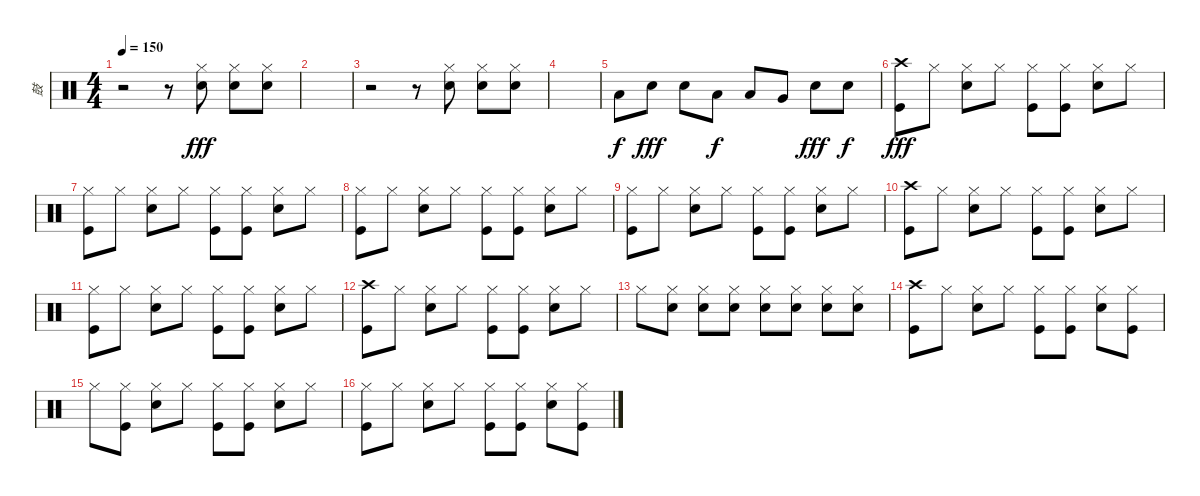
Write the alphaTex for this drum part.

\track ("鼓" "鼓") {instrument percussion}
\staff {score}
\articulation defaults
\ts (4 4)
\tempo 150
\clef neutral
\ks c
r.2{dy fff} r.8 ("Hi-Hat (closed)" "Electric Snare (hit)").8 ("Hi-Hat (closed)" "Electric Snare (hit)").8 ("Hi-Hat (closed)" "Electric Snare (hit)").8 |
|
r.2 r.8 ("Hi-Hat (closed)" "Electric Snare (hit)").8 ("Hi-Hat (closed)" "Electric Snare (hit)").8 ("Hi-Hat (closed)" "Electric Snare (hit)").8 |
|
"Low Tom (hit)".8{dy f} "Electric Snare (hit)".8{dy fff} "Electric Snare (hit)".8 "Low Tom (hit)".8{dy f} "Low Tom (hit)".8 "Very Low Tom (hit)".8 "Electric Snare (hit)".8{dy fff} "Electric Snare (hit)".8{dy f} |
("Crash high (hit)" "Kick (hit)").8{dy fff} "Hi-Hat (closed)".8 ("Hi-Hat (closed)" "Electric Snare (hit)").8 "Hi-Hat (closed)".8 ("Hi-Hat (closed)" "Kick (hit)").8 ("Hi-Hat (closed)" "Kick (hit)").8 ("Hi-Hat (closed)" "Electric Snare (hit)").8 "Hi-Hat (closed)".8 |
("Hi-Hat (closed)" "Kick (hit)").8 "Hi-Hat (closed)".8 ("Hi-Hat (closed)" "Electric Snare (hit)").8 "Hi-Hat (closed)".8 ("Hi-Hat (closed)" "Kick (hit)").8 ("Hi-Hat (closed)" "Kick (hit)").8 ("Hi-Hat (closed)" "Electric Snare (hit)").8 "Hi-Hat (closed)".8 |
("Hi-Hat (closed)" "Kick (hit)").8 "Hi-Hat (closed)".8 ("Hi-Hat (closed)" "Electric Snare (hit)").8 "Hi-Hat (closed)".8 ("Hi-Hat (closed)" "Kick (hit)").8 ("Hi-Hat (closed)" "Kick (hit)").8 ("Hi-Hat (closed)" "Electric Snare (hit)").8 "Hi-Hat (closed)".8 |
("Hi-Hat (closed)" "Kick (hit)").8 "Hi-Hat (closed)".8 ("Hi-Hat (closed)" "Electric Snare (hit)").8 "Hi-Hat (closed)".8 ("Hi-Hat (closed)" "Kick (hit)").8 ("Hi-Hat (closed)" "Kick (hit)").8 ("Hi-Hat (closed)" "Electric Snare (hit)").8 "Hi-Hat (closed)".8 |
("Crash high (hit)" "Kick (hit)").8 "Hi-Hat (closed)".8 ("Hi-Hat (closed)" "Electric Snare (hit)").8 "Hi-Hat (closed)".8 ("Hi-Hat (closed)" "Kick (hit)").8 ("Hi-Hat (closed)" "Kick (hit)").8 ("Hi-Hat (closed)" "Electric Snare (hit)").8 "Hi-Hat (closed)".8 |
("Hi-Hat (closed)" "Kick (hit)").8 "Hi-Hat (closed)".8 ("Hi-Hat (closed)" "Electric Snare (hit)").8 "Hi-Hat (closed)".8 ("Hi-Hat (closed)" "Kick (hit)").8 ("Hi-Hat (closed)" "Kick (hit)").8 ("Hi-Hat (closed)" "Electric Snare (hit)").8 "Hi-Hat (closed)".8 |
("Crash high (hit)" "Kick (hit)").8 "Hi-Hat (closed)".8 ("Hi-Hat (closed)" "Electric Snare (hit)").8 "Hi-Hat (closed)".8 ("Hi-Hat (closed)" "Kick (hit)").8 ("Hi-Hat (closed)" "Kick (hit)").8 ("Hi-Hat (closed)" "Electric Snare (hit)").8 "Hi-Hat (closed)".8 |
"Hi-Hat (closed)".8 ("Hi-Hat (closed)" "Electric Snare (hit)").8 ("Hi-Hat (closed)" "Electric Snare (hit)").8 ("Hi-Hat (closed)" "Electric Snare (hit)").8 ("Hi-Hat (closed)" "Electric Snare (hit)").8 ("Hi-Hat (closed)" "Electric Snare (hit)").8 ("Hi-Hat (closed)" "Electric Snare (hit)").8 ("Hi-Hat (closed)" "Electric Snare (hit)").8 |
("Crash high (hit)" "Kick (hit)").8 "Hi-Hat (closed)".8 ("Hi-Hat (closed)" "Electric Snare (hit)").8 "Hi-Hat (closed)".8 ("Hi-Hat (closed)" "Kick (hit)").8 ("Hi-Hat (closed)" "Kick (hit)").8 ("Hi-Hat (closed)" "Electric Snare (hit)").8 ("Hi-Hat (closed)" "Kick (hit)").8 |
"Hi-Hat (closed)".8 ("Hi-Hat (closed)" "Kick (hit)").8 ("Hi-Hat (closed)" "Electric Snare (hit)").8 "Hi-Hat (closed)".8 ("Hi-Hat (closed)" "Kick (hit)").8 ("Hi-Hat (closed)" "Kick (hit)").8 ("Hi-Hat (closed)" "Electric Snare (hit)").8 "Hi-Hat (closed)".8 |
("Hi-Hat (closed)" "Kick (hit)").8 "Hi-Hat (closed)".8 ("Hi-Hat (closed)" "Electric Snare (hit)").8 "Hi-Hat (closed)".8 ("Hi-Hat (closed)" "Kick (hit)").8 ("Hi-Hat (closed)" "Kick (hit)").8 ("Hi-Hat (closed)" "Electric Snare (hit)").8 ("Hi-Hat (closed)" "Kick (hit)").8
